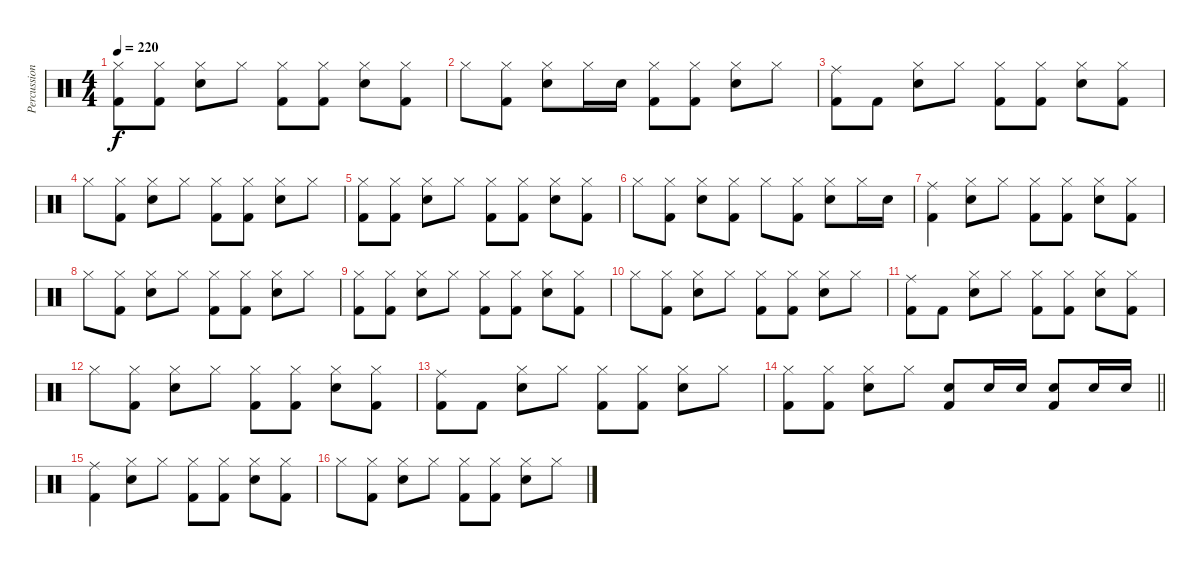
\track ("Percussion" "Percussion") {instrument percussion}
\staff {score}
\articulation defaults
\ts (4 4)
\tempo 220
\clef neutral
\ks c
("Hi-Hat (closed)" "Kick (hit) 2").8{dy f} ("Hi-Hat (closed)" "Kick (hit) 2").8 ("Hi-Hat (closed)" "Electric Snare (hit)").8 "Hi-Hat (closed)".8 ("Hi-Hat (closed)" "Kick (hit) 2").8 ("Hi-Hat (closed)" "Kick (hit) 2").8 ("Hi-Hat (closed)" "Electric Snare (hit)").8 ("Hi-Hat (closed)" "Kick (hit) 2").8 |
"Hi-Hat (closed)".8 ("Hi-Hat (closed)" "Kick (hit) 2").8 ("Hi-Hat (closed)" "Electric Snare (hit)").8 "Hi-Hat (closed)".16 "Electric Snare (hit)".16 ("Hi-Hat (closed)" "Kick (hit) 2").8 ("Hi-Hat (closed)" "Kick (hit) 2").8 ("Hi-Hat (closed)" "Electric Snare (hit)").8 "Hi-Hat (closed)".8 |
("Ride (middle)" "Kick (hit) 2").8 "Kick (hit) 2".8 ("Hi-Hat (closed)" "Electric Snare (hit)").8 "Hi-Hat (closed)".8 ("Hi-Hat (closed)" "Kick (hit) 2").8 ("Hi-Hat (closed)" "Kick (hit) 2").8 ("Hi-Hat (closed)" "Electric Snare (hit)").8 ("Hi-Hat (closed)" "Kick (hit) 2").8 |
"Hi-Hat (closed)".8 ("Hi-Hat (closed)" "Kick (hit) 2").8 ("Hi-Hat (closed)" "Electric Snare (hit)").8 "Hi-Hat (closed)".8 ("Hi-Hat (closed)" "Kick (hit) 2").8 ("Hi-Hat (closed)" "Kick (hit) 2").8 ("Hi-Hat (closed)" "Electric Snare (hit)").8 "Hi-Hat (closed)".8 |
("Hi-Hat (closed)" "Kick (hit) 2").8 ("Hi-Hat (closed)" "Kick (hit) 2").8 ("Hi-Hat (closed)" "Electric Snare (hit)").8 "Hi-Hat (closed)".8 ("Hi-Hat (closed)" "Kick (hit) 2").8 ("Hi-Hat (closed)" "Kick (hit) 2").8 ("Hi-Hat (closed)" "Electric Snare (hit)").8 ("Hi-Hat (closed)" "Kick (hit) 2").8 |
"Hi-Hat (closed)".8 ("Hi-Hat (closed)" "Kick (hit) 2").8 ("Hi-Hat (closed)" "Electric Snare (hit)").8 ("Hi-Hat (closed)" "Kick (hit) 2").8 "Hi-Hat (closed)".8 ("Hi-Hat (closed)" "Kick (hit) 2").8 ("Hi-Hat (closed)" "Electric Snare (hit)").8 "Hi-Hat (closed)".16 "Electric Snare (hit)".16 |
("Ride (middle)" "Kick (hit) 2").4 ("Hi-Hat (closed)" "Electric Snare (hit)").8 "Hi-Hat (closed)".8 ("Hi-Hat (closed)" "Kick (hit) 2").8 ("Hi-Hat (closed)" "Kick (hit) 2").8 ("Hi-Hat (closed)" "Electric Snare (hit)").8 ("Hi-Hat (closed)" "Kick (hit) 2").8 |
"Hi-Hat (closed)".8 ("Hi-Hat (closed)" "Kick (hit) 2").8 ("Hi-Hat (closed)" "Electric Snare (hit)").8 "Hi-Hat (closed)".8 ("Hi-Hat (closed)" "Kick (hit) 2").8 ("Hi-Hat (closed)" "Kick (hit) 2").8 ("Hi-Hat (closed)" "Electric Snare (hit)").8 "Hi-Hat (closed)".8 |
("Hi-Hat (closed)" "Kick (hit) 2").8 ("Hi-Hat (closed)" "Kick (hit) 2").8 ("Hi-Hat (closed)" "Electric Snare (hit)").8 "Hi-Hat (closed)".8 ("Hi-Hat (closed)" "Kick (hit) 2").8 ("Hi-Hat (closed)" "Kick (hit) 2").8 ("Hi-Hat (closed)" "Electric Snare (hit)").8 ("Hi-Hat (closed)" "Kick (hit) 2").8 |
"Hi-Hat (closed)".8 ("Hi-Hat (closed)" "Kick (hit) 2").8 ("Hi-Hat (closed)" "Electric Snare (hit)").8 "Hi-Hat (closed)".8 ("Hi-Hat (closed)" "Kick (hit) 2").8 ("Hi-Hat (closed)" "Kick (hit) 2").8 ("Hi-Hat (closed)" "Electric Snare (hit)").8 "Hi-Hat (closed)".8 |
("Ride (middle)" "Kick (hit) 2").8 "Kick (hit) 2".8 ("Hi-Hat (closed)" "Electric Snare (hit)").8 "Hi-Hat (closed)".8 ("Hi-Hat (closed)" "Kick (hit) 2").8 ("Hi-Hat (closed)" "Kick (hit) 2").8 ("Hi-Hat (closed)" "Electric Snare (hit)").8 ("Hi-Hat (closed)" "Kick (hit) 2").8 |
"Hi-Hat (closed)".8 ("Hi-Hat (closed)" "Kick (hit) 2").8 ("Hi-Hat (closed)" "Electric Snare (hit)").8 "Hi-Hat (closed)".8 ("Hi-Hat (closed)" "Kick (hit) 2").8 ("Hi-Hat (closed)" "Kick (hit) 2").8 ("Hi-Hat (closed)" "Electric Snare (hit)").8 ("Hi-Hat (closed)" "Kick (hit) 2").8 |
("Ride (middle)" "Kick (hit) 2").8 "Kick (hit) 2".8 ("Hi-Hat (closed)" "Electric Snare (hit)").8 "Hi-Hat (closed)".8 ("Hi-Hat (closed)" "Kick (hit) 2").8 ("Hi-Hat (closed)" "Kick (hit) 2").8 ("Hi-Hat (closed)" "Electric Snare (hit)").8 "Hi-Hat (closed)".8 |
\barLineRight lightlight
("Hi-Hat (closed)" "Kick (hit) 2").8 ("Hi-Hat (closed)" "Kick (hit) 2").8 ("Hi-Hat (closed)" "Electric Snare (hit)").8 "Hi-Hat (closed)".8 ("Electric Snare (hit)" "Kick (hit) 2").8 "Electric Snare (hit)".16 "Electric Snare (hit)".16 ("Electric Snare (hit)" "Kick (hit) 2").8 "Electric Snare (hit)".16 "Electric Snare (hit)".16 |
("Ride (middle)" "Kick (hit) 2").4 ("Hi-Hat (closed)" "Electric Snare (hit)").8 "Hi-Hat (closed)".8 ("Hi-Hat (closed)" "Kick (hit) 2").8 ("Hi-Hat (closed)" "Kick (hit) 2").8 ("Hi-Hat (closed)" "Electric Snare (hit)").8 ("Hi-Hat (closed)" "Kick (hit) 2").8 |
"Hi-Hat (closed)".8 ("Hi-Hat (closed)" "Kick (hit) 2").8 ("Hi-Hat (closed)" "Electric Snare (hit)").8 "Hi-Hat (closed)".8 ("Hi-Hat (closed)" "Kick (hit) 2").8 ("Hi-Hat (closed)" "Kick (hit) 2").8 ("Hi-Hat (closed)" "Electric Snare (hit)").8 "Hi-Hat (closed)".8
